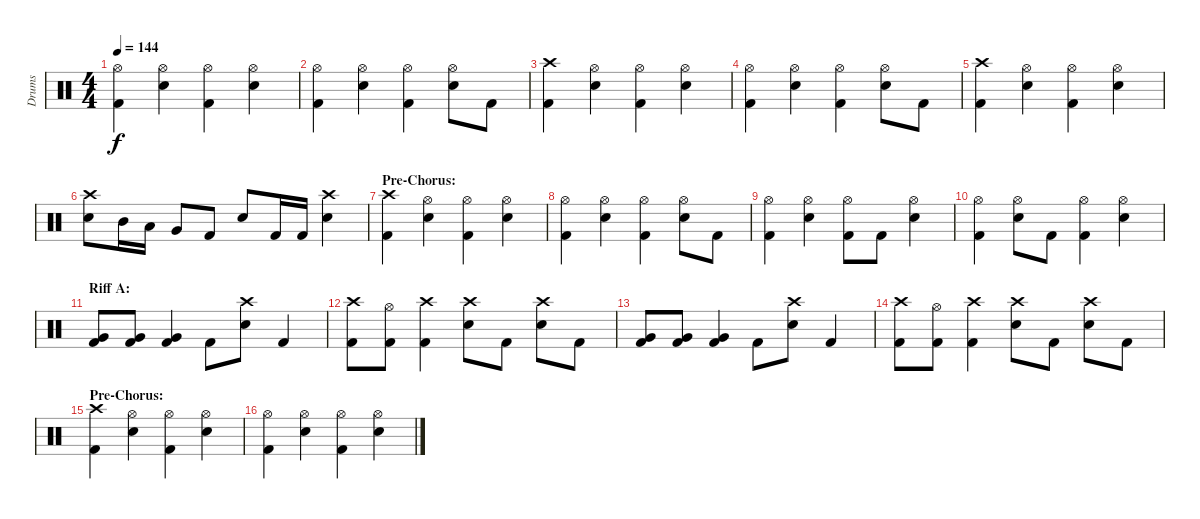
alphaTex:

\track ("Drums" "Drums") {instrument percussion}
\staff {score}
\articulation defaults
\ts (4 4)
\tempo 144
\clef neutral
\ks c
("Hi-Hat (open)" "Kick (hit) 2").4{dy f} ("Hi-Hat (open)" "Snare (hit) 2").4 ("Hi-Hat (open)" "Kick (hit) 2").4 ("Hi-Hat (open)" "Snare (hit) 2").4 |
("Hi-Hat (open)" "Kick (hit) 2").4 ("Hi-Hat (open)" "Snare (hit) 2").4 ("Hi-Hat (open)" "Kick (hit) 2").4 ("Hi-Hat (open)" "Snare (hit) 2").8 "Kick (hit) 2".8 |
("Crash high (hit)" "Kick (hit) 2").4 ("Hi-Hat (open)" "Snare (hit) 2").4 ("Hi-Hat (open)" "Kick (hit) 2").4 ("Hi-Hat (open)" "Snare (hit) 2").4 |
("Hi-Hat (open)" "Kick (hit) 2").4 ("Hi-Hat (open)" "Snare (hit) 2").4 ("Hi-Hat (open)" "Kick (hit) 2").4 ("Hi-Hat (open)" "Snare (hit) 2").8 "Kick (hit) 2".8 |
("Crash high (hit)" "Kick (hit) 2").4 ("Hi-Hat (open)" "Snare (hit) 2").4 ("Hi-Hat (open)" "Kick (hit) 2").4 ("Hi-Hat (open)" "Snare (hit) 2").4 |
("Crash high (hit)" "Snare (hit) 2").8 "Mid Tom (hit)".16 "Low Tom (hit)".16 "Very Low Tom (hit)".8 "Kick (hit) 2".8 "Snare (hit) 2".8 "Kick (hit) 2".16 "Kick (hit) 2".16 ("Crash high (hit)" "Snare (hit) 2").4 |
\section ("" "Pre-Chorus:")
("Crash high (hit)" "Kick (hit) 2").4 ("Hi-Hat (open)" "Snare (hit) 2").4 ("Hi-Hat (open)" "Kick (hit) 2").4 ("Hi-Hat (open)" "Snare (hit) 2").4 |
("Hi-Hat (open)" "Kick (hit) 2").4 ("Hi-Hat (open)" "Snare (hit) 2").4 ("Hi-Hat (open)" "Kick (hit) 2").4 ("Hi-Hat (open)" "Snare (hit) 2").8 "Kick (hit) 2".8 |
("Hi-Hat (open)" "Kick (hit) 2").4 ("Hi-Hat (open)" "Snare (hit) 2").4 ("Hi-Hat (open)" "Kick (hit) 2").8 "Kick (hit) 2".8 ("Hi-Hat (open)" "Snare (hit) 2").4 |
("Hi-Hat (open)" "Kick (hit) 2").4 ("Hi-Hat (open)" "Snare (hit) 2").8 "Kick (hit) 2".8 ("Hi-Hat (open)" "Kick (hit) 2").4 ("Hi-Hat (open)" "Snare (hit) 2").4 |
\section ("" "Riff A:")
("Very Low Tom (hit)" "Kick (hit) 2").8 ("Very Low Tom (hit)" "Kick (hit) 2").8 ("Very Low Tom (hit)" "Kick (hit) 2").4 "Kick (hit) 2".8 ("Crash high (hit)" "Snare (hit) 2").8 "Kick (hit) 2".4 |
("Crash high (hit)" "Kick (hit) 2").8 ("Hi-Hat (open)" "Kick (hit) 2").8 ("Crash high (hit)" "Kick (hit) 2").4 ("Crash high (hit)" "Snare (hit) 2").8 "Kick (hit) 2".8 ("Crash high (hit)" "Snare (hit) 2").8 "Kick (hit) 2".8 |
("Very Low Tom (hit)" "Kick (hit) 2").8 ("Very Low Tom (hit)" "Kick (hit) 2").8 ("Very Low Tom (hit)" "Kick (hit) 2").4 "Kick (hit) 2".8 ("Crash high (hit)" "Snare (hit) 2").8 "Kick (hit) 2".4 |
("Crash high (hit)" "Kick (hit) 2").8 ("Hi-Hat (open)" "Kick (hit) 2").8 ("Crash high (hit)" "Kick (hit) 2").4 ("Crash high (hit)" "Snare (hit) 2").8 "Kick (hit) 2".8 ("Crash high (hit)" "Snare (hit) 2").8 "Kick (hit) 2".8 |
\section ("" "Pre-Chorus:")
("Crash high (hit)" "Kick (hit) 2").4 ("Hi-Hat (open)" "Snare (hit) 2").4 ("Hi-Hat (open)" "Kick (hit) 2").4 ("Hi-Hat (open)" "Snare (hit) 2").4 |
("Hi-Hat (open)" "Kick (hit) 2").4 ("Hi-Hat (open)" "Snare (hit) 2").4 ("Hi-Hat (open)" "Kick (hit) 2").4 ("Hi-Hat (open)" "Snare (hit) 2").4
